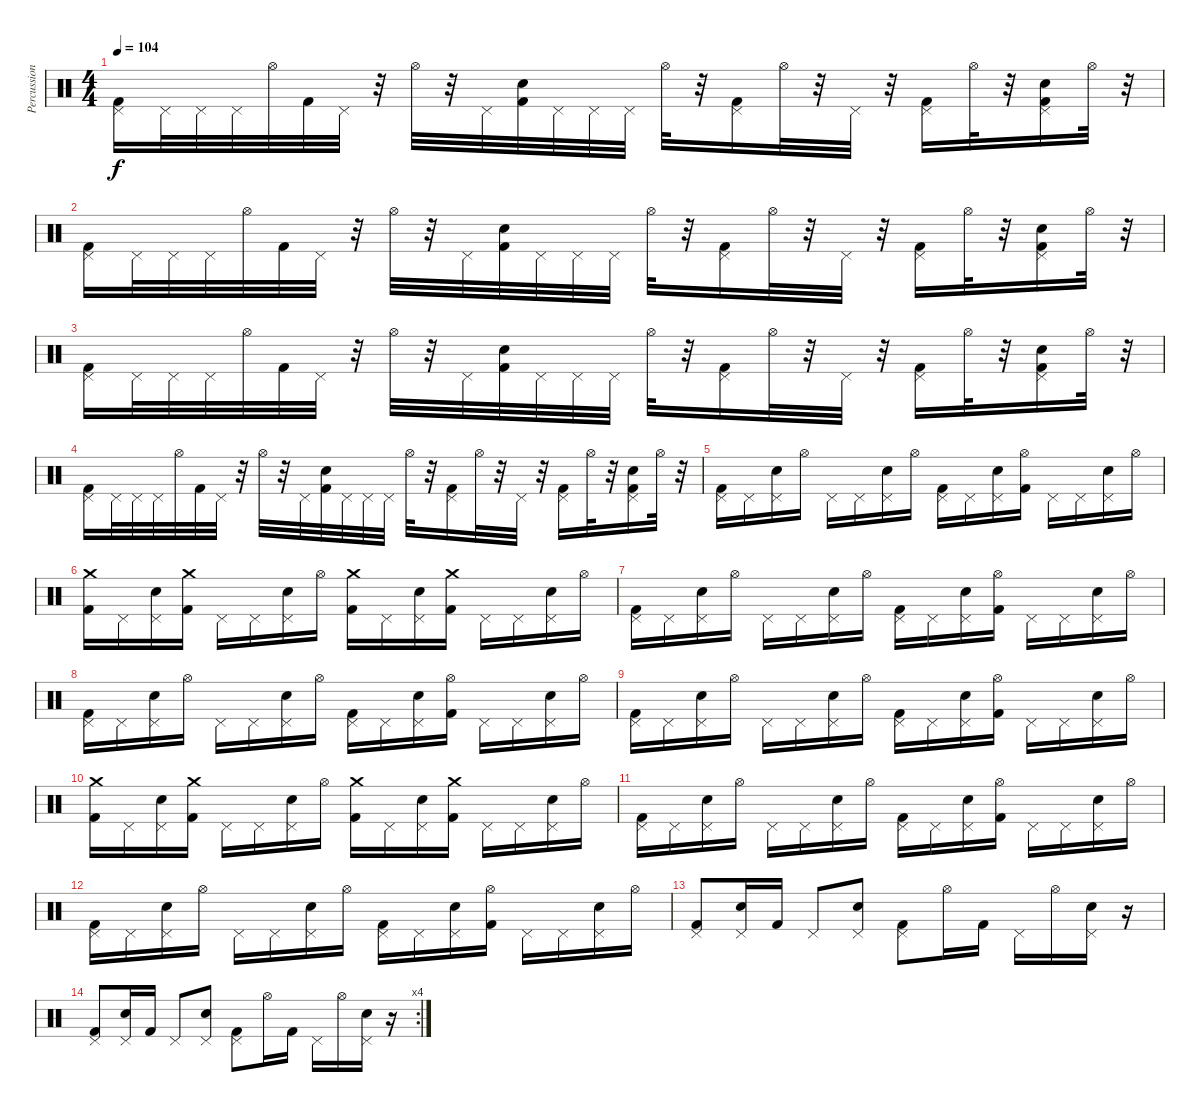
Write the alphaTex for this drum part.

\track ("Percussion" "Percussion") {instrument percussion}
\staff {score}
\articulation defaults
\ts (4 4)
\tempo 104
\clef neutral
\ks c
("Pedal Hi-Hat (hit)" "Kick (hit) 2").16{dy f} "Pedal Hi-Hat (hit)".32 "Pedal Hi-Hat (hit)".32 "Pedal Hi-Hat (hit)".32 "Hi-Hat (open)".32 "Kick (hit) 2".32 "Pedal Hi-Hat (hit)".32 r.32 "Hi-Hat (open)".32 r.32 "Pedal Hi-Hat (hit)".32 ("Snare (hit) 2" "Kick (hit) 2").32 "Pedal Hi-Hat (hit)".32 "Pedal Hi-Hat (hit)".32 "Pedal Hi-Hat (hit)".32 "Hi-Hat (open)".32 r.32 ("Pedal Hi-Hat (hit)" "Kick (hit) 2").16 "Hi-Hat (open)".32 r.32 "Pedal Hi-Hat (hit)".32 r.32 ("Pedal Hi-Hat (hit)" "Kick (hit) 2").16 "Hi-Hat (open)".32 r.32 ("Pedal Hi-Hat (hit)" "Snare (hit) 2" "Kick (hit) 2").16 "Hi-Hat (open)".32 r.32 |
("Pedal Hi-Hat (hit)" "Kick (hit) 2").16 "Pedal Hi-Hat (hit)".32 "Pedal Hi-Hat (hit)".32 "Pedal Hi-Hat (hit)".32 "Hi-Hat (open)".32 "Kick (hit) 2".32 "Pedal Hi-Hat (hit)".32 r.32 "Hi-Hat (open)".32 r.32 "Pedal Hi-Hat (hit)".32 ("Snare (hit) 2" "Kick (hit) 2").32 "Pedal Hi-Hat (hit)".32 "Pedal Hi-Hat (hit)".32 "Pedal Hi-Hat (hit)".32 "Hi-Hat (open)".32 r.32 ("Pedal Hi-Hat (hit)" "Kick (hit) 2").16 "Hi-Hat (open)".32 r.32 "Pedal Hi-Hat (hit)".32 r.32 ("Pedal Hi-Hat (hit)" "Kick (hit) 2").16 "Hi-Hat (open)".32 r.32 ("Pedal Hi-Hat (hit)" "Snare (hit) 2" "Kick (hit) 2").16 "Hi-Hat (open)".32 r.32 |
("Pedal Hi-Hat (hit)" "Kick (hit) 2").16 "Pedal Hi-Hat (hit)".32 "Pedal Hi-Hat (hit)".32 "Pedal Hi-Hat (hit)".32 "Hi-Hat (open)".32 "Kick (hit) 2".32 "Pedal Hi-Hat (hit)".32 r.32 "Hi-Hat (open)".32 r.32 "Pedal Hi-Hat (hit)".32 ("Snare (hit) 2" "Kick (hit) 2").32 "Pedal Hi-Hat (hit)".32 "Pedal Hi-Hat (hit)".32 "Pedal Hi-Hat (hit)".32 "Hi-Hat (open)".32 r.32 ("Pedal Hi-Hat (hit)" "Kick (hit) 2").16 "Hi-Hat (open)".32 r.32 "Pedal Hi-Hat (hit)".32 r.32 ("Pedal Hi-Hat (hit)" "Kick (hit) 2").16 "Hi-Hat (open)".32 r.32 ("Pedal Hi-Hat (hit)" "Snare (hit) 2" "Kick (hit) 2").16 "Hi-Hat (open)".32 r.32 |
("Pedal Hi-Hat (hit)" "Kick (hit) 2").16 "Pedal Hi-Hat (hit)".32 "Pedal Hi-Hat (hit)".32 "Pedal Hi-Hat (hit)".32 "Hi-Hat (open)".32 "Kick (hit) 2".32 "Pedal Hi-Hat (hit)".32 r.32 "Hi-Hat (open)".32 r.32 "Pedal Hi-Hat (hit)".32 ("Snare (hit) 2" "Kick (hit) 2").32 "Pedal Hi-Hat (hit)".32 "Pedal Hi-Hat (hit)".32 "Pedal Hi-Hat (hit)".32 "Hi-Hat (open)".32 r.32 ("Pedal Hi-Hat (hit)" "Kick (hit) 2").16 "Hi-Hat (open)".32 r.32 "Pedal Hi-Hat (hit)".32 r.32 ("Pedal Hi-Hat (hit)" "Kick (hit) 2").16 "Hi-Hat (open)".32 r.32 ("Pedal Hi-Hat (hit)" "Snare (hit) 2" "Kick (hit) 2").16 "Hi-Hat (open)".32 r.32 |
("Pedal Hi-Hat (hit)" "Kick (hit) 2").16 "Pedal Hi-Hat (hit)".16 ("Pedal Hi-Hat (hit)" "Snare (hit) 2").16 "Hi-Hat (open)".16 "Pedal Hi-Hat (hit)".16 "Pedal Hi-Hat (hit)".16 ("Pedal Hi-Hat (hit)" "Snare (hit) 2").16 "Hi-Hat (open)".16 ("Pedal Hi-Hat (hit)" "Kick (hit) 2").16 "Pedal Hi-Hat (hit)".16 ("Pedal Hi-Hat (hit)" "Snare (hit) 2").16 ("Hi-Hat (open)" "Kick (hit) 2").16 "Pedal Hi-Hat (hit)".16 "Pedal Hi-Hat (hit)".16 ("Pedal Hi-Hat (hit)" "Snare (hit) 2").16 "Hi-Hat (open)".16 |
("Crash medium (hit)" "Kick (hit) 2").16 "Pedal Hi-Hat (hit)".16 ("Pedal Hi-Hat (hit)" "Snare (hit) 2").16 ("Crash medium (hit)" "Kick (hit) 2").16 "Pedal Hi-Hat (hit)".16 "Pedal Hi-Hat (hit)".16 ("Pedal Hi-Hat (hit)" "Snare (hit) 2").16 "Hi-Hat (open)".16 ("Crash medium (hit)" "Kick (hit) 2").16 "Pedal Hi-Hat (hit)".16 ("Pedal Hi-Hat (hit)" "Snare (hit) 2").16 ("Crash medium (hit)" "Kick (hit) 2").16 "Pedal Hi-Hat (hit)".16 "Pedal Hi-Hat (hit)".16 ("Pedal Hi-Hat (hit)" "Snare (hit) 2").16 "Hi-Hat (open)".16 |
("Pedal Hi-Hat (hit)" "Kick (hit) 2").16 "Pedal Hi-Hat (hit)".16 ("Pedal Hi-Hat (hit)" "Snare (hit) 2").16 "Hi-Hat (open)".16 "Pedal Hi-Hat (hit)".16 "Pedal Hi-Hat (hit)".16 ("Pedal Hi-Hat (hit)" "Snare (hit) 2").16 "Hi-Hat (open)".16 ("Pedal Hi-Hat (hit)" "Kick (hit) 2").16 "Pedal Hi-Hat (hit)".16 ("Pedal Hi-Hat (hit)" "Snare (hit) 2").16 ("Hi-Hat (open)" "Kick (hit) 2").16 "Pedal Hi-Hat (hit)".16 "Pedal Hi-Hat (hit)".16 ("Pedal Hi-Hat (hit)" "Snare (hit) 2").16 "Hi-Hat (open)".16 |
("Pedal Hi-Hat (hit)" "Kick (hit) 2").16 "Pedal Hi-Hat (hit)".16 ("Pedal Hi-Hat (hit)" "Snare (hit) 2").16 "Hi-Hat (open)".16 "Pedal Hi-Hat (hit)".16 "Pedal Hi-Hat (hit)".16 ("Pedal Hi-Hat (hit)" "Snare (hit) 2").16 "Hi-Hat (open)".16 ("Pedal Hi-Hat (hit)" "Kick (hit) 2").16 "Pedal Hi-Hat (hit)".16 ("Pedal Hi-Hat (hit)" "Snare (hit) 2").16 ("Hi-Hat (open)" "Kick (hit) 2").16 "Pedal Hi-Hat (hit)".16 "Pedal Hi-Hat (hit)".16 ("Pedal Hi-Hat (hit)" "Snare (hit) 2").16 "Hi-Hat (open)".16 |
("Pedal Hi-Hat (hit)" "Kick (hit) 2").16 "Pedal Hi-Hat (hit)".16 ("Pedal Hi-Hat (hit)" "Snare (hit) 2").16 "Hi-Hat (open)".16 "Pedal Hi-Hat (hit)".16 "Pedal Hi-Hat (hit)".16 ("Pedal Hi-Hat (hit)" "Snare (hit) 2").16 "Hi-Hat (open)".16 ("Pedal Hi-Hat (hit)" "Kick (hit) 2").16 "Pedal Hi-Hat (hit)".16 ("Pedal Hi-Hat (hit)" "Snare (hit) 2").16 ("Hi-Hat (open)" "Kick (hit) 2").16 "Pedal Hi-Hat (hit)".16 "Pedal Hi-Hat (hit)".16 ("Pedal Hi-Hat (hit)" "Snare (hit) 2").16 "Hi-Hat (open)".16 |
("Crash medium (hit)" "Kick (hit) 2").16 "Pedal Hi-Hat (hit)".16 ("Pedal Hi-Hat (hit)" "Snare (hit) 2").16 ("Crash medium (hit)" "Kick (hit) 2").16 "Pedal Hi-Hat (hit)".16 "Pedal Hi-Hat (hit)".16 ("Pedal Hi-Hat (hit)" "Snare (hit) 2").16 "Hi-Hat (open)".16 ("Crash medium (hit)" "Kick (hit) 2").16 "Pedal Hi-Hat (hit)".16 ("Pedal Hi-Hat (hit)" "Snare (hit) 2").16 ("Crash medium (hit)" "Kick (hit) 2").16 "Pedal Hi-Hat (hit)".16 "Pedal Hi-Hat (hit)".16 ("Pedal Hi-Hat (hit)" "Snare (hit) 2").16 "Hi-Hat (open)".16 |
("Pedal Hi-Hat (hit)" "Kick (hit) 2").16 "Pedal Hi-Hat (hit)".16 ("Pedal Hi-Hat (hit)" "Snare (hit) 2").16 "Hi-Hat (open)".16 "Pedal Hi-Hat (hit)".16 "Pedal Hi-Hat (hit)".16 ("Pedal Hi-Hat (hit)" "Snare (hit) 2").16 "Hi-Hat (open)".16 ("Pedal Hi-Hat (hit)" "Kick (hit) 2").16 "Pedal Hi-Hat (hit)".16 ("Pedal Hi-Hat (hit)" "Snare (hit) 2").16 ("Hi-Hat (open)" "Kick (hit) 2").16 "Pedal Hi-Hat (hit)".16 "Pedal Hi-Hat (hit)".16 ("Pedal Hi-Hat (hit)" "Snare (hit) 2").16 "Hi-Hat (open)".16 |
("Pedal Hi-Hat (hit)" "Kick (hit) 2").16 "Pedal Hi-Hat (hit)".16 ("Pedal Hi-Hat (hit)" "Snare (hit) 2").16 "Hi-Hat (open)".16 "Pedal Hi-Hat (hit)".16 "Pedal Hi-Hat (hit)".16 ("Pedal Hi-Hat (hit)" "Snare (hit) 2").16 "Hi-Hat (open)".16 ("Pedal Hi-Hat (hit)" "Kick (hit) 2").16 "Pedal Hi-Hat (hit)".16 ("Pedal Hi-Hat (hit)" "Snare (hit) 2").16 ("Hi-Hat (open)" "Kick (hit) 2").16 "Pedal Hi-Hat (hit)".16 "Pedal Hi-Hat (hit)".16 ("Pedal Hi-Hat (hit)" "Snare (hit) 2").16 "Hi-Hat (open)".16 |
("Pedal Hi-Hat (hit)" "Kick (hit) 2").8 ("Pedal Hi-Hat (hit)" "Snare (hit) 2").16 "Kick (hit) 2".16 "Pedal Hi-Hat (hit)".8 ("Pedal Hi-Hat (hit)" "Snare (hit) 2").8 ("Pedal Hi-Hat (hit)" "Kick (hit) 2").8 "Hi-Hat (open)".16 "Kick (hit) 2".16 "Pedal Hi-Hat (hit)".16 "Hi-Hat (open)".16 ("Pedal Hi-Hat (hit)" "Snare (hit) 2").16 r.16 |
\rc 4
("Pedal Hi-Hat (hit)" "Kick (hit) 2").8 ("Pedal Hi-Hat (hit)" "Snare (hit) 2").16 "Kick (hit) 2".16 "Pedal Hi-Hat (hit)".8 ("Pedal Hi-Hat (hit)" "Snare (hit) 2").8 ("Pedal Hi-Hat (hit)" "Kick (hit) 2").8 "Hi-Hat (open)".16 "Kick (hit) 2".16 "Pedal Hi-Hat (hit)".16 "Hi-Hat (open)".16 ("Pedal Hi-Hat (hit)" "Snare (hit) 2").16 r.16
